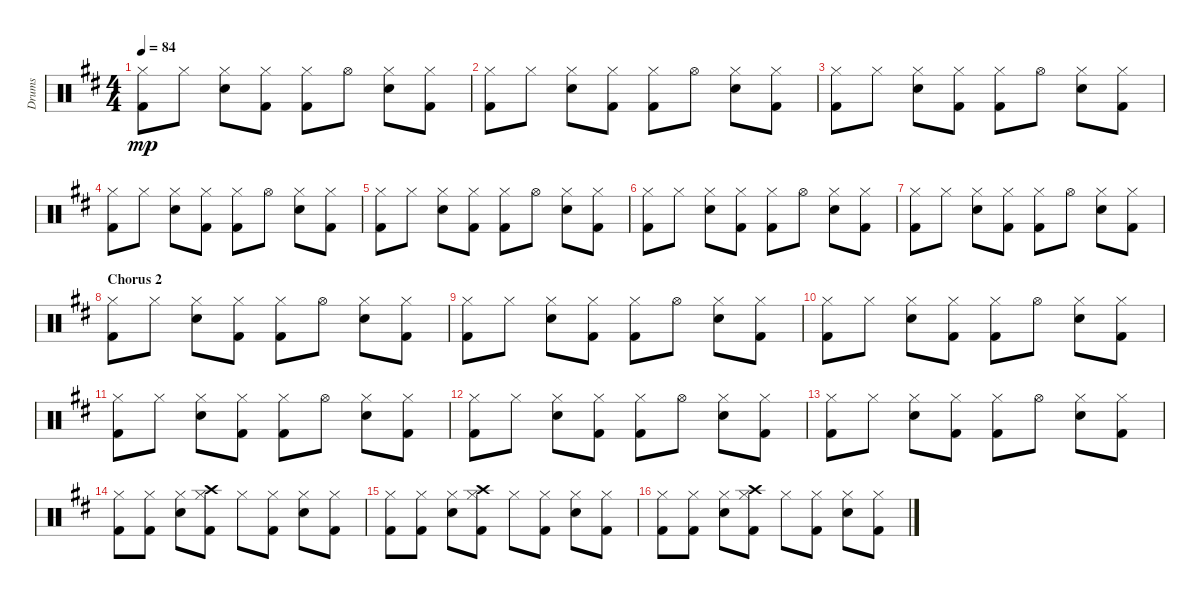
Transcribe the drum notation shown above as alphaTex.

\track ("Drums" "Drums") {instrument percussion}
\staff {score}
\articulation defaults
\ts (4 4)
\tempo 84
\clef neutral
\ks d
("Hi-Hat (closed)" "Kick (hit) 2").8{dy mp} "Hi-Hat (closed)".8 ("Hi-Hat (closed)" "Snare (hit) 2").8 ("Hi-Hat (closed)" "Kick (hit) 2").8 ("Hi-Hat (closed)" "Kick (hit) 2").8 "Hi-Hat (open)".8 ("Hi-Hat (closed)" "Snare (hit) 2").8 ("Hi-Hat (closed)" "Kick (hit) 2").8 |
("Hi-Hat (closed)" "Kick (hit) 2").8 "Hi-Hat (closed)".8 ("Hi-Hat (closed)" "Snare (hit) 2").8 ("Hi-Hat (closed)" "Kick (hit) 2").8 ("Hi-Hat (closed)" "Kick (hit) 2").8 "Hi-Hat (open)".8 ("Hi-Hat (closed)" "Snare (hit) 2").8 ("Hi-Hat (closed)" "Kick (hit) 2").8 |
("Hi-Hat (closed)" "Kick (hit) 2").8 "Hi-Hat (closed)".8 ("Hi-Hat (closed)" "Snare (hit) 2").8 ("Hi-Hat (closed)" "Kick (hit) 2").8 ("Hi-Hat (closed)" "Kick (hit) 2").8 "Hi-Hat (open)".8 ("Hi-Hat (closed)" "Snare (hit) 2").8 ("Hi-Hat (closed)" "Kick (hit) 2").8 |
("Hi-Hat (closed)" "Kick (hit) 2").8 "Hi-Hat (closed)".8 ("Hi-Hat (closed)" "Snare (hit) 2").8 ("Hi-Hat (closed)" "Kick (hit) 2").8 ("Hi-Hat (closed)" "Kick (hit) 2").8 "Hi-Hat (open)".8 ("Hi-Hat (closed)" "Snare (hit) 2").8 ("Hi-Hat (closed)" "Kick (hit) 2").8 |
("Hi-Hat (closed)" "Kick (hit) 2").8 "Hi-Hat (closed)".8 ("Hi-Hat (closed)" "Snare (hit) 2").8 ("Hi-Hat (closed)" "Kick (hit) 2").8 ("Hi-Hat (closed)" "Kick (hit) 2").8 "Hi-Hat (open)".8 ("Hi-Hat (closed)" "Snare (hit) 2").8 ("Hi-Hat (closed)" "Kick (hit) 2").8 |
("Hi-Hat (closed)" "Kick (hit) 2").8 "Hi-Hat (closed)".8 ("Hi-Hat (closed)" "Snare (hit) 2").8 ("Hi-Hat (closed)" "Kick (hit) 2").8 ("Hi-Hat (closed)" "Kick (hit) 2").8 "Hi-Hat (open)".8 ("Hi-Hat (closed)" "Snare (hit) 2").8 ("Hi-Hat (closed)" "Kick (hit) 2").8 |
("Hi-Hat (closed)" "Kick (hit) 2").8 "Hi-Hat (closed)".8 ("Hi-Hat (closed)" "Snare (hit) 2").8 ("Hi-Hat (closed)" "Kick (hit) 2").8 ("Hi-Hat (closed)" "Kick (hit) 2").8 "Hi-Hat (open)".8 ("Hi-Hat (closed)" "Snare (hit) 2").8 ("Hi-Hat (closed)" "Kick (hit) 2").8 |
\section ("" "Chorus 2")
("Hi-Hat (closed)" "Kick (hit) 2").8 "Hi-Hat (closed)".8 ("Hi-Hat (closed)" "Snare (hit) 2").8 ("Hi-Hat (closed)" "Kick (hit) 2").8 ("Hi-Hat (closed)" "Kick (hit) 2").8 "Hi-Hat (open)".8 ("Hi-Hat (closed)" "Snare (hit) 2").8 ("Hi-Hat (closed)" "Kick (hit) 2").8 |
("Hi-Hat (closed)" "Kick (hit) 2").8 "Hi-Hat (closed)".8 ("Hi-Hat (closed)" "Snare (hit) 2").8 ("Hi-Hat (closed)" "Kick (hit) 2").8 ("Hi-Hat (closed)" "Kick (hit) 2").8 "Hi-Hat (open)".8 ("Hi-Hat (closed)" "Snare (hit) 2").8 ("Hi-Hat (closed)" "Kick (hit) 2").8 |
("Hi-Hat (closed)" "Kick (hit) 2").8 "Hi-Hat (closed)".8 ("Hi-Hat (closed)" "Snare (hit) 2").8 ("Hi-Hat (closed)" "Kick (hit) 2").8 ("Hi-Hat (closed)" "Kick (hit) 2").8 "Hi-Hat (open)".8 ("Hi-Hat (closed)" "Snare (hit) 2").8 ("Hi-Hat (closed)" "Kick (hit) 2").8 |
("Hi-Hat (closed)" "Kick (hit) 2").8 "Hi-Hat (closed)".8 ("Hi-Hat (closed)" "Snare (hit) 2").8 ("Hi-Hat (closed)" "Kick (hit) 2").8 ("Hi-Hat (closed)" "Kick (hit) 2").8 "Hi-Hat (open)".8 ("Hi-Hat (closed)" "Snare (hit) 2").8 ("Hi-Hat (closed)" "Kick (hit) 2").8 |
("Hi-Hat (closed)" "Kick (hit) 2").8 "Hi-Hat (closed)".8 ("Hi-Hat (closed)" "Snare (hit) 2").8 ("Hi-Hat (closed)" "Kick (hit) 2").8 ("Hi-Hat (closed)" "Kick (hit) 2").8 "Hi-Hat (open)".8 ("Hi-Hat (closed)" "Snare (hit) 2").8 ("Hi-Hat (closed)" "Kick (hit) 2").8 |
("Hi-Hat (closed)" "Kick (hit) 2").8 "Hi-Hat (closed)".8 ("Hi-Hat (closed)" "Snare (hit) 2").8 ("Hi-Hat (closed)" "Kick (hit) 2").8 ("Hi-Hat (closed)" "Kick (hit) 2").8 "Hi-Hat (open)".8 ("Hi-Hat (closed)" "Snare (hit) 2").8 ("Hi-Hat (closed)" "Kick (hit) 2").8 |
("Hi-Hat (closed)" "Kick (hit) 2").8 ("Hi-Hat (closed)" "Kick (hit) 2").8 ("Hi-Hat (closed)" "Snare (hit) 2").8 ("Crash high (hit)" "Hi-Hat (closed)" "Kick (hit) 2").8 "Hi-Hat (closed)".8 ("Hi-Hat (closed)" "Kick (hit) 2").8 ("Hi-Hat (closed)" "Snare (hit) 2").8 ("Hi-Hat (closed)" "Kick (hit) 2").8 |
("Hi-Hat (closed)" "Kick (hit) 2").8 ("Hi-Hat (closed)" "Kick (hit) 2").8 ("Hi-Hat (closed)" "Snare (hit) 2").8 ("Crash high (hit)" "Hi-Hat (closed)" "Kick (hit) 2").8 "Hi-Hat (closed)".8 ("Hi-Hat (closed)" "Kick (hit) 2").8 ("Hi-Hat (closed)" "Snare (hit) 2").8 ("Hi-Hat (closed)" "Kick (hit) 2").8 |
("Hi-Hat (closed)" "Kick (hit) 2").8 ("Hi-Hat (closed)" "Kick (hit) 2").8 ("Hi-Hat (closed)" "Snare (hit) 2").8 ("Crash high (hit)" "Hi-Hat (closed)" "Kick (hit) 2").8 "Hi-Hat (closed)".8 ("Hi-Hat (closed)" "Kick (hit) 2").8 ("Hi-Hat (closed)" "Snare (hit) 2").8 ("Hi-Hat (closed)" "Kick (hit) 2").8
